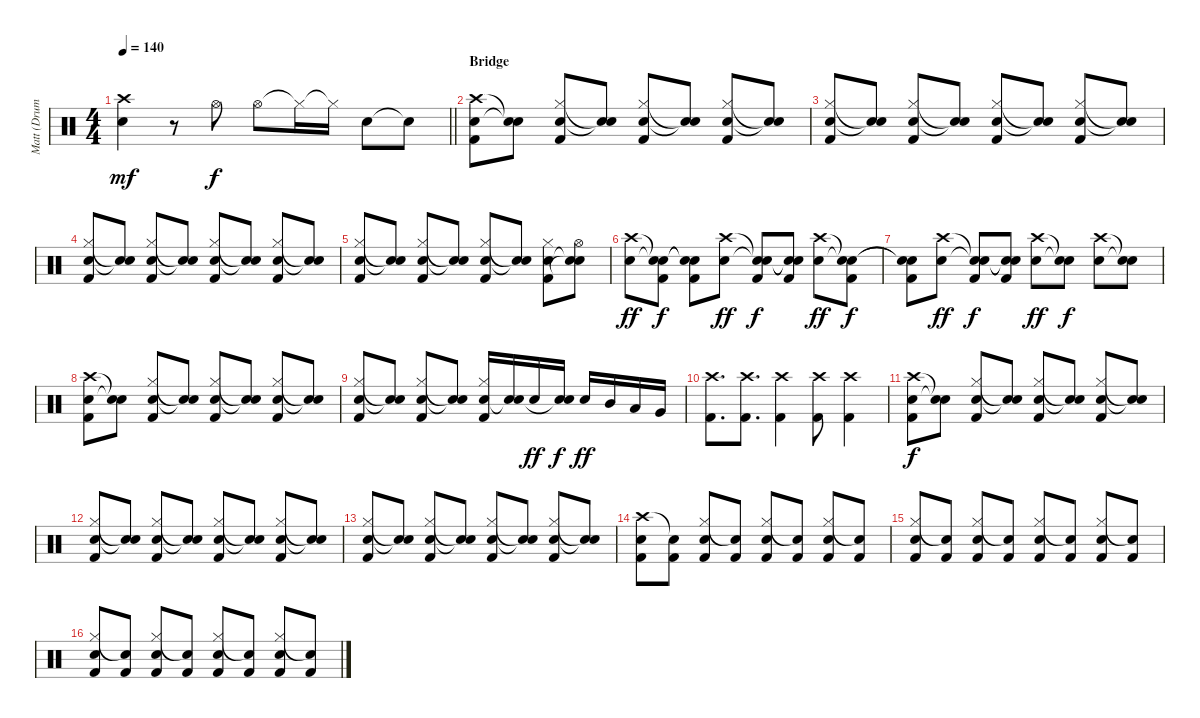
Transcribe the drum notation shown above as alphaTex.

\track ("Matt (Drums)" "Matt (Drum") {instrument percussion}
\staff {score}
\articulation defaults
\ts (4 4)
\tempo 140
\clef neutral
\barLineRight lightlight
\ks c
("Crash high (hit)" "Snare (hit) 2").4{dy mf} r.8 "Hi-Hat (open)".8{dy f} "Hi-Hat (open)".8 "Hi-Hat (closed)"{t}.16 "Hi-Hat (closed)"{t}.16 "Snare (hit) 2".8 "Snare (hit) 2"{t}.8 |
\section ("" "Bridge")
("Crash high (hit)" "Snare (hit) 2" "Kick (hit) 2").8 ("Snare (hit)"{t} "Snare (hit)"{t}).8 ("Hi-Hat (closed)" "Snare (hit) 2" "Kick (hit) 2").8 ("Snare (hit)"{t} "Snare (hit)"{t}).8 ("Hi-Hat (closed)" "Snare (hit) 2" "Kick (hit) 2").8 ("Snare (hit)"{t} "Snare (hit)"{t}).8 ("Hi-Hat (closed)" "Snare (hit) 2" "Kick (hit) 2").8 ("Snare (hit)"{t} "Snare (hit)"{t}).8 |
("Hi-Hat (closed)" "Snare (hit) 2" "Kick (hit) 2").8 ("Snare (hit)"{t} "Snare (hit)"{t}).8 ("Hi-Hat (closed)" "Snare (hit) 2" "Kick (hit) 2").8 ("Snare (hit)"{t} "Snare (hit)"{t}).8 ("Hi-Hat (closed)" "Snare (hit) 2" "Kick (hit) 2").8 ("Snare (hit)"{t} "Snare (hit)"{t}).8 ("Hi-Hat (closed)" "Snare (hit) 2" "Kick (hit) 2").8 ("Snare (hit)"{t} "Snare (hit)"{t}).8 |
("Hi-Hat (closed)" "Snare (hit) 2" "Kick (hit) 2").8 ("Snare (hit)"{t} "Snare (hit)"{t}).8 ("Hi-Hat (closed)" "Snare (hit) 2" "Kick (hit) 2").8 ("Snare (hit)"{t} "Snare (hit)"{t}).8 ("Hi-Hat (closed)" "Snare (hit) 2" "Kick (hit) 2").8 ("Snare (hit)"{t} "Snare (hit)"{t}).8 ("Hi-Hat (closed)" "Snare (hit) 2" "Kick (hit) 2").8 ("Snare (hit)"{t} "Snare (hit)"{t}).8 |
("Hi-Hat (closed)" "Snare (hit) 2" "Kick (hit) 2").8 ("Snare (hit)"{t} "Snare (hit)"{t}).8 ("Hi-Hat (closed)" "Snare (hit) 2" "Kick (hit) 2").8 ("Snare (hit)"{t} "Snare (hit)"{t}).8 ("Hi-Hat (closed)" "Snare (hit) 2" "Kick (hit) 2").8 ("Snare (hit)"{t} "Snare (hit)"{t}).8 ("Hi-Hat (closed)" "Snare (hit) 2" "Kick (hit) 2").8 ("Hi-Hat (open)" "Snare (hit)"{t} "Snare (hit)"{t}).8 |
("Crash high (hit)" "Snare (hit) 2").8{dy ff} ("Snare (hit)"{t} "Snare (hit)"{t} "Kick (hit) 2").8{dy f} ("Snare (hit)"{t} "Snare (hit)"{t} "Kick (hit) 2").8 ("Crash high (hit)" "Snare (hit) 2").8{dy ff} ("Snare (hit)"{t} "Snare (hit)"{t} "Kick (hit) 2").8{dy f} ("Snare (hit)"{t} "Snare (hit)"{t} "Kick (hit) 2").8 ("Crash high (hit)" "Snare (hit) 2").8{dy ff} ("Snare (hit)"{t} "Snare (hit)"{t} "Kick (hit) 2").8{dy f} |
("Snare (hit)"{t} "Snare (hit)"{t} "Kick (hit) 2").8 ("Crash high (hit)" "Snare (hit) 2").8{dy ff} ("Snare (hit)"{t} "Snare (hit)"{t} "Kick (hit) 2").8{dy f} ("Snare (hit)"{t} "Snare (hit)"{t} "Kick (hit) 2").8 ("Crash high (hit)" "Snare (hit) 2").8{dy ff} ("Snare (hit)"{t} "Snare (hit)"{t}).8{dy f} ("Crash high (hit)" "Snare (hit) 2").8 ("Snare (hit)"{t} "Snare (hit)"{t}).8 |
("Crash high (hit)" "Snare (hit) 2" "Kick (hit) 2").8 ("Snare (hit)"{t} "Snare (hit)"{t}).8 ("Hi-Hat (closed)" "Snare (hit) 2" "Kick (hit) 2").8 ("Snare (hit)"{t} "Snare (hit)"{t}).8 ("Hi-Hat (closed)" "Snare (hit) 2" "Kick (hit) 2").8 ("Snare (hit)"{t} "Snare (hit)"{t}).8 ("Hi-Hat (closed)" "Snare (hit) 2" "Kick (hit) 2").8 ("Snare (hit)"{t} "Snare (hit)"{t}).8 |
("Hi-Hat (closed)" "Snare (hit) 2" "Kick (hit) 2").8 ("Snare (hit)"{t} "Snare (hit)"{t}).8 ("Hi-Hat (closed)" "Snare (hit) 2" "Kick (hit) 2").8 ("Snare (hit)"{t} "Snare (hit)"{t}).8 ("Hi-Hat (closed)" "Snare (hit) 2" "Kick (hit) 2").16 ("Snare (hit) 2" "Snare (hit)"{t}).16 "Snare (hit) 2".16{dy ff} ("Snare (hit) 2" "Snare (hit)"{t}).16{dy f} "Snare (hit) 2".16{dy ff} "Mid Tom (hit)".16 "Low Tom (hit)".16 "Very Low Tom (hit)".16 |
("Crash high (hit)" "Kick (hit) 2").8{d} ("Crash high (hit)" "Kick (hit) 2").8{d} ("Crash high (hit)" "Kick (hit) 2").4 ("Crash high (hit)" "Kick (hit) 2").8 ("Crash high (hit)" "Kick (hit) 2").4 |
("Crash high (hit)" "Snare (hit) 2" "Kick (hit) 2").8{dy f} ("Snare (hit)"{t} "Snare (hit)"{t}).8 ("Hi-Hat (closed)" "Snare (hit) 2" "Kick (hit) 2").8 ("Snare (hit)"{t} "Snare (hit)"{t}).8 ("Hi-Hat (closed)" "Snare (hit) 2" "Kick (hit) 2").8 ("Snare (hit)"{t} "Snare (hit)"{t}).8 ("Hi-Hat (closed)" "Snare (hit) 2" "Kick (hit) 2").8 ("Snare (hit)"{t} "Snare (hit)"{t}).8 |
("Hi-Hat (closed)" "Snare (hit) 2" "Kick (hit) 2").8 ("Snare (hit)"{t} "Snare (hit)"{t}).8 ("Hi-Hat (closed)" "Snare (hit) 2" "Kick (hit) 2").8 ("Snare (hit)"{t} "Snare (hit)"{t}).8 ("Hi-Hat (closed)" "Snare (hit) 2" "Kick (hit) 2").8 ("Snare (hit)"{t} "Snare (hit)"{t}).8 ("Hi-Hat (closed)" "Snare (hit) 2" "Kick (hit) 2").8 ("Snare (hit)"{t} "Snare (hit)"{t}).8 |
("Hi-Hat (closed)" "Snare (hit) 2" "Kick (hit) 2").8 ("Snare (hit)"{t} "Snare (hit)"{t}).8 ("Hi-Hat (closed)" "Snare (hit) 2" "Kick (hit) 2").8 ("Snare (hit)"{t} "Snare (hit)"{t}).8 ("Hi-Hat (closed)" "Snare (hit) 2" "Kick (hit) 2").8 ("Snare (hit)"{t} "Snare (hit)"{t}).8 ("Hi-Hat (closed)" "Snare (hit) 2" "Kick (hit) 2").8 ("Snare (hit)"{t} "Snare (hit)"{t}).8 |
("Crash high (hit)" "Snare (hit) 2" "Kick (hit) 2").8 ("Snare (hit)"{t} "Kick (hit) 2").8 ("Hi-Hat (closed)" "Snare (hit) 2" "Kick (hit) 2").8 ("Snare (hit)"{t} "Kick (hit) 2").8 ("Hi-Hat (closed)" "Snare (hit) 2" "Kick (hit) 2").8 ("Snare (hit)"{t} "Kick (hit) 2").8 ("Hi-Hat (closed)" "Snare (hit) 2" "Kick (hit) 2").8 ("Snare (hit)"{t} "Kick (hit) 2").8 |
("Hi-Hat (closed)" "Snare (hit) 2" "Kick (hit) 2").8 ("Snare (hit)"{t} "Kick (hit) 2").8 ("Hi-Hat (closed)" "Snare (hit) 2" "Kick (hit) 2").8 ("Snare (hit)"{t} "Kick (hit) 2").8 ("Hi-Hat (closed)" "Snare (hit) 2" "Kick (hit) 2").8 ("Snare (hit)"{t} "Kick (hit) 2").8 ("Hi-Hat (closed)" "Snare (hit) 2" "Kick (hit) 2").8 ("Snare (hit)"{t} "Kick (hit) 2").8 |
("Hi-Hat (closed)" "Snare (hit) 2" "Kick (hit) 2").8 ("Snare (hit)"{t} "Kick (hit) 2").8 ("Hi-Hat (closed)" "Snare (hit) 2" "Kick (hit) 2").8 ("Snare (hit)"{t} "Kick (hit) 2").8 ("Hi-Hat (closed)" "Snare (hit) 2" "Kick (hit) 2").8 ("Snare (hit)"{t} "Kick (hit) 2").8 ("Hi-Hat (closed)" "Snare (hit) 2" "Kick (hit) 2").8 ("Snare (hit)"{t} "Kick (hit) 2").8
